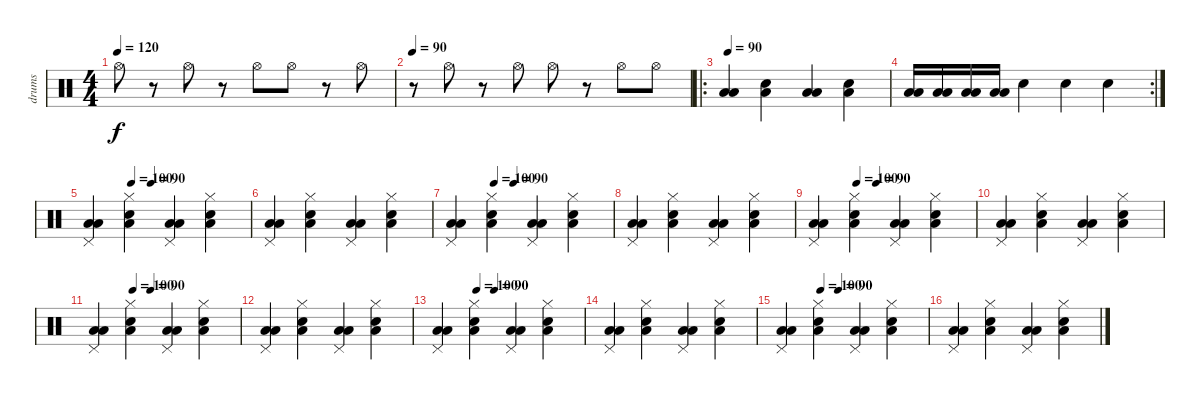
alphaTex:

\track ("drums" "drums") {instrument percussion}
\staff {score}
\articulation defaults
\ts (4 4)
\tempo 120
\tempo 90
\tempo 120
\clef neutral
\ks c "Hi-Hat (open)".8{dy f}
r.8 "Hi-Hat (open)".8 r.8 "Hi-Hat (open)".8 "Hi-Hat (open)".8 r.8 "Hi-Hat (open)".8 |
\tempo 90
r.8 "Hi-Hat (open)".8 r.8 "Hi-Hat (open)".8 "Hi-Hat (open)".8 r.8 "Hi-Hat (open)".8 "Hi-Hat (open)".8 |
\ro
\tempo 90
("Low Floor Tom (hit)" "Low Floor Tom (hit)").4 ("Snare (hit) 2" "Low Floor Tom (hit)").4 ("Low Floor Tom (hit)" "Low Floor Tom (hit)").4 ("Snare (hit) 2" "Low Floor Tom (hit)").4 |
\rc 2
("Low Floor Tom (hit)" "Low Floor Tom (hit)").16 ("Low Floor Tom (hit)" "Low Floor Tom (hit)").16 ("Low Floor Tom (hit)" "Low Floor Tom (hit)").16 ("Low Floor Tom (hit)" "Low Floor Tom (hit)").16 "Snare (hit) 2".4 "Snare (hit) 2".4 "Snare (hit) 2".4 |
\tempo (100 0.25)
\tempo (90 0.375)
("Pedal Hi-Hat (hit)" "Low Floor Tom (hit)" "Low Floor Tom (hit)").4 ("Hi-Hat (closed)" "Snare (hit) 2" "Low Floor Tom (hit)").4 ("Pedal Hi-Hat (hit)" "Low Floor Tom (hit)" "Low Floor Tom (hit)").4 ("Hi-Hat (closed)" "Snare (hit) 2" "Low Floor Tom (hit)").4 |
("Pedal Hi-Hat (hit)" "Low Floor Tom (hit)" "Low Floor Tom (hit)").4 ("Hi-Hat (closed)" "Snare (hit) 2" "Low Floor Tom (hit)").4 ("Pedal Hi-Hat (hit)" "Low Floor Tom (hit)" "Low Floor Tom (hit)").4 ("Hi-Hat (closed)" "Snare (hit) 2" "Low Floor Tom (hit)").4 |
\tempo (100 0.25)
\tempo (90 0.375)
("Pedal Hi-Hat (hit)" "Low Floor Tom (hit)" "Low Floor Tom (hit)").4 ("Hi-Hat (closed)" "Snare (hit) 2" "Low Floor Tom (hit)").4 ("Pedal Hi-Hat (hit)" "Low Floor Tom (hit)" "Low Floor Tom (hit)").4 ("Hi-Hat (closed)" "Snare (hit) 2" "Low Floor Tom (hit)").4 |
("Pedal Hi-Hat (hit)" "Low Floor Tom (hit)" "Low Floor Tom (hit)").4 ("Hi-Hat (closed)" "Snare (hit) 2" "Low Floor Tom (hit)").4 ("Pedal Hi-Hat (hit)" "Low Floor Tom (hit)" "Low Floor Tom (hit)").4 ("Hi-Hat (closed)" "Snare (hit) 2" "Low Floor Tom (hit)").4 |
\tempo (100 0.25)
\tempo (90 0.375)
("Pedal Hi-Hat (hit)" "Low Floor Tom (hit)" "Low Floor Tom (hit)").4 ("Hi-Hat (closed)" "Snare (hit) 2" "Low Floor Tom (hit)").4 ("Pedal Hi-Hat (hit)" "Low Floor Tom (hit)" "Low Floor Tom (hit)").4 ("Hi-Hat (closed)" "Snare (hit) 2" "Low Floor Tom (hit)").4 |
("Pedal Hi-Hat (hit)" "Low Floor Tom (hit)" "Low Floor Tom (hit)").4 ("Hi-Hat (closed)" "Snare (hit) 2" "Low Floor Tom (hit)").4 ("Pedal Hi-Hat (hit)" "Low Floor Tom (hit)" "Low Floor Tom (hit)").4 ("Hi-Hat (closed)" "Snare (hit) 2" "Low Floor Tom (hit)").4 |
\tempo (100 0.25)
\tempo (90 0.375)
("Pedal Hi-Hat (hit)" "Low Floor Tom (hit)" "Low Floor Tom (hit)").4 ("Hi-Hat (closed)" "Snare (hit) 2" "Low Floor Tom (hit)").4 ("Pedal Hi-Hat (hit)" "Low Floor Tom (hit)" "Low Floor Tom (hit)").4 ("Hi-Hat (closed)" "Snare (hit) 2" "Low Floor Tom (hit)").4 |
("Pedal Hi-Hat (hit)" "Low Floor Tom (hit)" "Low Floor Tom (hit)").4 ("Hi-Hat (closed)" "Snare (hit) 2" "Low Floor Tom (hit)").4 ("Pedal Hi-Hat (hit)" "Low Floor Tom (hit)" "Low Floor Tom (hit)").4 ("Hi-Hat (closed)" "Snare (hit) 2" "Low Floor Tom (hit)").4 |
\tempo (100 0.25)
\tempo (90 0.375)
("Pedal Hi-Hat (hit)" "Low Floor Tom (hit)" "Low Floor Tom (hit)").4 ("Hi-Hat (closed)" "Snare (hit) 2" "Low Floor Tom (hit)").4 ("Pedal Hi-Hat (hit)" "Low Floor Tom (hit)" "Low Floor Tom (hit)").4 ("Hi-Hat (closed)" "Snare (hit) 2" "Low Floor Tom (hit)").4 |
("Pedal Hi-Hat (hit)" "Low Floor Tom (hit)" "Low Floor Tom (hit)").4 ("Hi-Hat (closed)" "Snare (hit) 2" "Low Floor Tom (hit)").4 ("Pedal Hi-Hat (hit)" "Low Floor Tom (hit)" "Low Floor Tom (hit)").4 ("Hi-Hat (closed)" "Snare (hit) 2" "Low Floor Tom (hit)").4 |
\tempo (100 0.25)
\tempo (90 0.375)
("Pedal Hi-Hat (hit)" "Low Floor Tom (hit)" "Low Floor Tom (hit)").4 ("Hi-Hat (closed)" "Snare (hit) 2" "Low Floor Tom (hit)").4 ("Pedal Hi-Hat (hit)" "Low Floor Tom (hit)" "Low Floor Tom (hit)").4 ("Hi-Hat (closed)" "Snare (hit) 2" "Low Floor Tom (hit)").4 |
("Pedal Hi-Hat (hit)" "Low Floor Tom (hit)" "Low Floor Tom (hit)").4 ("Hi-Hat (closed)" "Snare (hit) 2" "Low Floor Tom (hit)").4 ("Pedal Hi-Hat (hit)" "Low Floor Tom (hit)" "Low Floor Tom (hit)").4 ("Hi-Hat (closed)" "Snare (hit) 2" "Low Floor Tom (hit)").4
